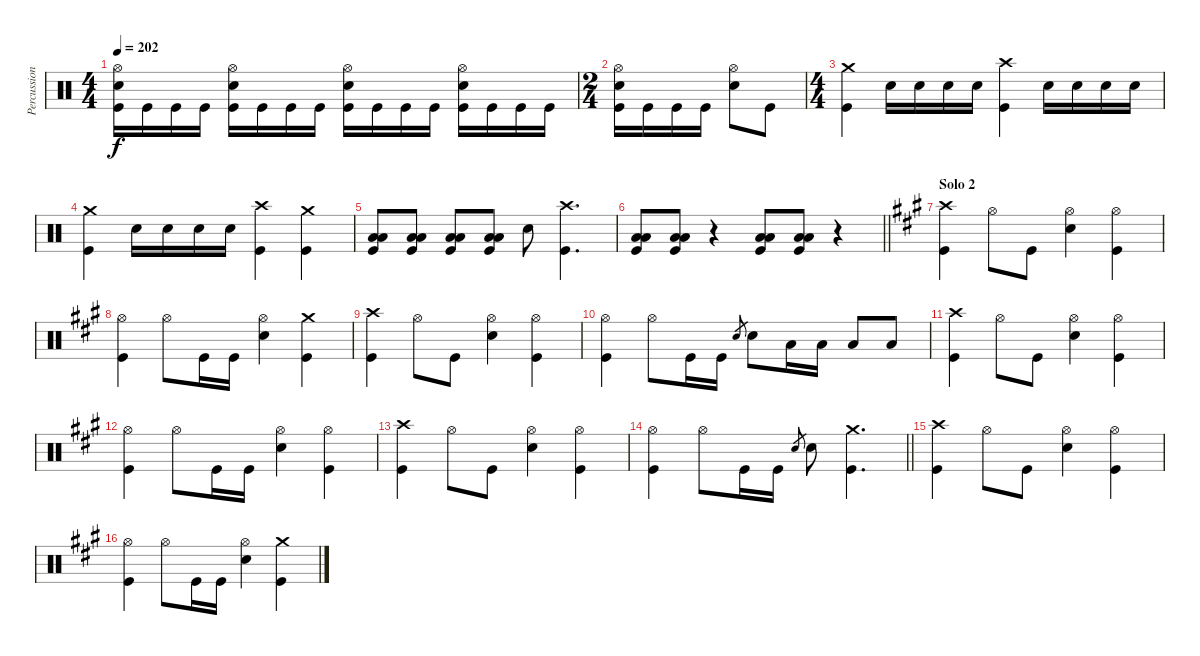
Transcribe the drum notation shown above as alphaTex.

\track ("Percussion" "Percussion") {instrument percussion}
\staff {score}
\articulation defaults
\ts (4 4)
\tempo 202
\clef neutral
\ks c
("Hi-Hat (open)" "Electric Snare (hit)" "Kick (hit)").16{dy f} "Kick (hit)".16 "Kick (hit)".16 "Kick (hit)".16 ("Hi-Hat (open)" "Electric Snare (hit)" "Kick (hit)").16 "Kick (hit)".16 "Kick (hit)".16 "Kick (hit)".16 ("Hi-Hat (open)" "Electric Snare (hit)" "Kick (hit)").16 "Kick (hit)".16 "Kick (hit)".16 "Kick (hit)".16 ("Hi-Hat (open)" "Electric Snare (hit)" "Kick (hit)").16 "Kick (hit)".16 "Kick (hit)".16 "Kick (hit)".16 |
\ts (2 4)
("Hi-Hat (open)" "Electric Snare (hit)" "Kick (hit)").16 "Kick (hit)".16 "Kick (hit)".16 "Kick (hit)".16 ("Hi-Hat (open)" "Electric Snare (hit)").8 "Kick (hit)".8 |
\ts (4 4)
("Crash medium (hit)" "Kick (hit)").4 "Electric Snare (hit)".16 "Electric Snare (hit)".16 "Electric Snare (hit)".16 "Electric Snare (hit)".16 ("Crash high (hit)" "Kick (hit)").4 "Electric Snare (hit)".16 "Electric Snare (hit)".16 "Electric Snare (hit)".16 "Electric Snare (hit)".16 |
("Crash medium (hit)" "Kick (hit)").4 "Electric Snare (hit)".16 "Electric Snare (hit)".16 "Electric Snare (hit)".16 "Electric Snare (hit)".16 ("Crash high (hit)" "Kick (hit)").4 ("Crash medium (hit)" "Kick (hit)").4 |
("Low Tom (hit)" "Low Floor Tom (hit)" "Kick (hit)").8 ("Low Tom (hit)" "Low Floor Tom (hit)" "Kick (hit)").8 ("Low Tom (hit)" "Low Floor Tom (hit)" "Kick (hit)").8 ("Low Tom (hit)" "Low Floor Tom (hit)" "Kick (hit)").8 "Electric Snare (hit)".8 ("Crash high (hit)" "Kick (hit)").4{d} |
\barLineRight lightlight
("Low Tom (hit)" "Low Floor Tom (hit)" "Kick (hit)").8 ("Low Tom (hit)" "Low Floor Tom (hit)" "Kick (hit)").8 r.4 ("Low Tom (hit)" "Low Floor Tom (hit)" "Kick (hit)").8 ("Low Tom (hit)" "Low Floor Tom (hit)" "Kick (hit)").8 r.4 |
\section ("" "Solo 2")
\ks a
("Crash high (hit)" "Kick (hit)").4 "Hi-Hat (open)".8 "Kick (hit)".8 ("Hi-Hat (open)" "Electric Snare (hit)").4 ("Hi-Hat (open)" "Kick (hit)").4 |
("Hi-Hat (open)" "Kick (hit)").4 "Hi-Hat (open)".8 "Kick (hit)".16 "Kick (hit)".16 ("Hi-Hat (open)" "Electric Snare (hit)").4 ("Crash medium (hit)" "Kick (hit)").4 |
("Crash high (hit)" "Kick (hit)").4 "Hi-Hat (open)".8 "Kick (hit)".8 ("Hi-Hat (open)" "Electric Snare (hit)").4 ("Hi-Hat (open)" "Kick (hit)").4 |
("Hi-Hat (open)" "Kick (hit)").4 "Hi-Hat (open)".8 "Kick (hit)".16 "Kick (hit)".16 "Electric Snare (hit)".8{gr} "Electric Snare (hit)".8 "Low Tom (hit)".16 "Low Tom (hit)".16 "Low Tom (hit)".8 "Low Floor Tom (hit)".8 |
("Crash high (hit)" "Kick (hit)").4 "Hi-Hat (open)".8 "Kick (hit)".8 ("Hi-Hat (open)" "Electric Snare (hit)").4 ("Hi-Hat (open)" "Kick (hit)").4 |
("Hi-Hat (open)" "Kick (hit)").4 "Hi-Hat (open)".8 "Kick (hit)".16 "Kick (hit)".16 ("Hi-Hat (open)" "Electric Snare (hit)").4 ("Hi-Hat (open)" "Kick (hit)").4 |
("Crash high (hit)" "Kick (hit)").4 "Hi-Hat (open)".8 "Kick (hit)".8 ("Hi-Hat (open)" "Electric Snare (hit)").4 ("Hi-Hat (open)" "Kick (hit)").4 |
\barLineRight lightlight
("Hi-Hat (open)" "Kick (hit)").4 "Hi-Hat (open)".8 "Kick (hit)".16 "Kick (hit)".16 "Electric Snare (hit)".8{gr} "Electric Snare (hit)".8 ("Crash medium (hit)" "Kick (hit)").4{d} |
("Crash high (hit)" "Kick (hit)").4 "Hi-Hat (open)".8 "Kick (hit)".8 ("Hi-Hat (open)" "Electric Snare (hit)").4 ("Hi-Hat (open)" "Kick (hit)").4 |
("Hi-Hat (open)" "Kick (hit)").4 "Hi-Hat (open)".8 "Kick (hit)".16 "Kick (hit)".16 ("Hi-Hat (open)" "Electric Snare (hit)").4 ("Crash medium (hit)" "Kick (hit)").4
